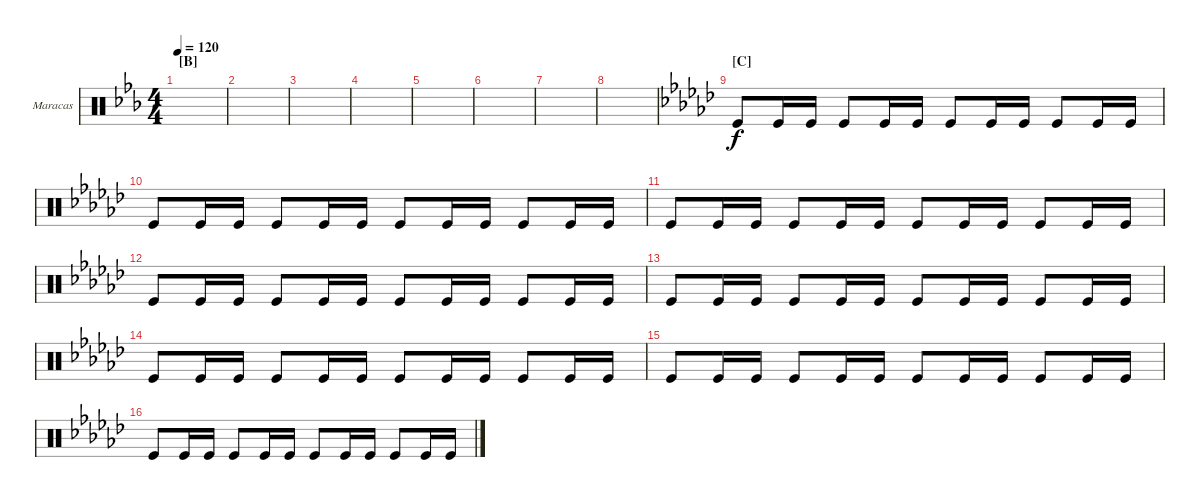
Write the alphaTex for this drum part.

\defaultSystemsLayout 4
\bracketExtendMode groupsimilarinstruments
\firstSystemTrackNameOrientation horizontal
\otherSystemsTrackNameOrientation horizontal
\track ("Maracas" "Maracas") {instrument percussion}
\staff {score}
\articulation defaults
\ts (4 4)
\section ("B" "")
\tempo 120
\clef neutral
\ks eb
|
|
|
|
|
|
|
|
\section ("C" "")
\ks ebminor "Kick (hit)".8 "Kick (hit)".16 "Kick (hit)".16 "Kick (hit)".8 "Kick (hit)".16 "Kick (hit)".16 "Kick (hit)".8 "Kick (hit)".16 "Kick (hit)".16 "Kick (hit)".8 "Kick (hit)".16 "Kick (hit)".16
|
"Kick (hit)".8 "Kick (hit)".16 "Kick (hit)".16 "Kick (hit)".8 "Kick (hit)".16 "Kick (hit)".16 "Kick (hit)".8 "Kick (hit)".16 "Kick (hit)".16 "Kick (hit)".8 "Kick (hit)".16 "Kick (hit)".16 |
"Kick (hit)".8 "Kick (hit)".16 "Kick (hit)".16 "Kick (hit)".8 "Kick (hit)".16 "Kick (hit)".16 "Kick (hit)".8 "Kick (hit)".16 "Kick (hit)".16 "Kick (hit)".8 "Kick (hit)".16 "Kick (hit)".16 |
"Kick (hit)".8 "Kick (hit)".16 "Kick (hit)".16 "Kick (hit)".8 "Kick (hit)".16 "Kick (hit)".16 "Kick (hit)".8 "Kick (hit)".16 "Kick (hit)".16 "Kick (hit)".8 "Kick (hit)".16 "Kick (hit)".16 |
"Kick (hit)".8 "Kick (hit)".16 "Kick (hit)".16 "Kick (hit)".8 "Kick (hit)".16 "Kick (hit)".16 "Kick (hit)".8 "Kick (hit)".16 "Kick (hit)".16 "Kick (hit)".8 "Kick (hit)".16 "Kick (hit)".16 |
"Kick (hit)".8 "Kick (hit)".16 "Kick (hit)".16 "Kick (hit)".8 "Kick (hit)".16 "Kick (hit)".16 "Kick (hit)".8 "Kick (hit)".16 "Kick (hit)".16 "Kick (hit)".8 "Kick (hit)".16 "Kick (hit)".16 |
"Kick (hit)".8 "Kick (hit)".16 "Kick (hit)".16 "Kick (hit)".8 "Kick (hit)".16 "Kick (hit)".16 "Kick (hit)".8 "Kick (hit)".16 "Kick (hit)".16 "Kick (hit)".8 "Kick (hit)".16 "Kick (hit)".16 |
"Kick (hit)".8 "Kick (hit)".16 "Kick (hit)".16 "Kick (hit)".8 "Kick (hit)".16 "Kick (hit)".16 "Kick (hit)".8 "Kick (hit)".16 "Kick (hit)".16 "Kick (hit)".8 "Kick (hit)".16 "Kick (hit)".16
